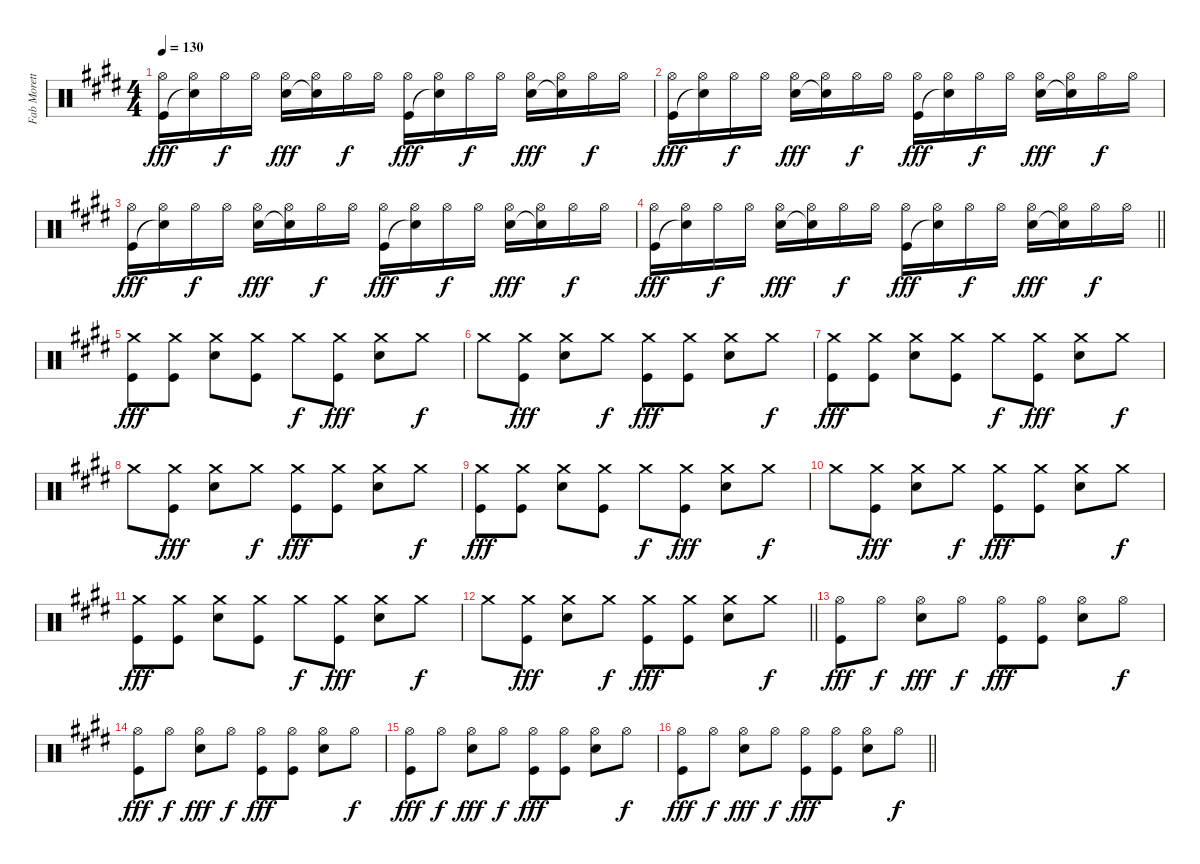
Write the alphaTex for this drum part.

\track ("Fab Moretti" "Fab Morett") {instrument percussion}
\staff {score}
\articulation defaults
\ts (4 4)
\tempo 130
\clef neutral
\ks e
("Hi-Hat (open)" "Kick (hit)").16{dy fff} ("Hi-Hat (open)" "Snare (hit)"{t}).16 "Hi-Hat (open)".16{dy f} "Hi-Hat (open)".16 ("Hi-Hat (open)" "Snare (hit) 2").16{dy fff} ("Hi-Hat (open)" "Snare (hit)"{t}).16 "Hi-Hat (open)".16{dy f} "Hi-Hat (open)".16 ("Hi-Hat (open)" "Kick (hit)").16{dy fff} ("Hi-Hat (open)" "Snare (hit)"{t}).16 "Hi-Hat (open)".16{dy f} "Hi-Hat (open)".16 ("Hi-Hat (open)" "Snare (hit) 2").16{dy fff} ("Hi-Hat (open)" "Snare (hit)"{t}).16 "Hi-Hat (open)".16{dy f} "Hi-Hat (open)".16 |
("Hi-Hat (open)" "Kick (hit)").16{dy fff} ("Hi-Hat (open)" "Snare (hit)"{t}).16 "Hi-Hat (open)".16{dy f} "Hi-Hat (open)".16 ("Hi-Hat (open)" "Snare (hit) 2").16{dy fff} ("Hi-Hat (open)" "Snare (hit)"{t}).16 "Hi-Hat (open)".16{dy f} "Hi-Hat (open)".16 ("Hi-Hat (open)" "Kick (hit)").16{dy fff} ("Hi-Hat (open)" "Snare (hit)"{t}).16 "Hi-Hat (open)".16{dy f} "Hi-Hat (open)".16 ("Hi-Hat (open)" "Snare (hit) 2").16{dy fff} ("Hi-Hat (open)" "Snare (hit)"{t}).16 "Hi-Hat (open)".16{dy f} "Hi-Hat (open)".16 |
("Hi-Hat (open)" "Kick (hit)").16{dy fff} ("Hi-Hat (open)" "Snare (hit)"{t}).16 "Hi-Hat (open)".16{dy f} "Hi-Hat (open)".16 ("Hi-Hat (open)" "Snare (hit) 2").16{dy fff} ("Hi-Hat (open)" "Snare (hit)"{t}).16 "Hi-Hat (open)".16{dy f} "Hi-Hat (open)".16 ("Hi-Hat (open)" "Kick (hit)").16{dy fff} ("Hi-Hat (open)" "Snare (hit)"{t}).16 "Hi-Hat (open)".16{dy f} "Hi-Hat (open)".16 ("Hi-Hat (open)" "Snare (hit) 2").16{dy fff} ("Hi-Hat (open)" "Snare (hit)"{t}).16 "Hi-Hat (open)".16{dy f} "Hi-Hat (open)".16 |
\barLineRight lightlight
("Hi-Hat (open)" "Kick (hit)").16{dy fff} ("Hi-Hat (open)" "Snare (hit)"{t}).16 "Hi-Hat (open)".16{dy f} "Hi-Hat (open)".16 ("Hi-Hat (open)" "Snare (hit) 2").16{dy fff} ("Hi-Hat (open)" "Snare (hit)"{t}).16 "Hi-Hat (open)".16{dy f} "Hi-Hat (open)".16 ("Hi-Hat (open)" "Kick (hit)").16{dy fff} ("Hi-Hat (open)" "Snare (hit)"{t}).16 "Hi-Hat (open)".16{dy f} "Hi-Hat (open)".16 ("Hi-Hat (open)" "Snare (hit) 2").16{dy fff} ("Hi-Hat (open)" "Snare (hit)"{t}).16 "Hi-Hat (open)".16{dy f} "Hi-Hat (open)".16 |
("Crash medium (hit)" "Kick (hit)").8{dy fff} ("Crash medium (hit)" "Kick (hit)").8 ("Crash medium (hit)" "Snare (hit) 2").8 ("Crash medium (hit)" "Kick (hit)").8 "Crash medium (hit)".8{dy f} ("Crash medium (hit)" "Kick (hit)").8{dy fff} ("Crash medium (hit)" "Snare (hit) 2").8 "Crash medium (hit)".8{dy f} |
"Crash medium (hit)".8 ("Crash medium (hit)" "Kick (hit)").8{dy fff} ("Crash medium (hit)" "Snare (hit) 2").8 "Crash medium (hit)".8{dy f} ("Crash medium (hit)" "Kick (hit)").8{dy fff} ("Crash medium (hit)" "Kick (hit)").8 ("Crash medium (hit)" "Snare (hit) 2").8 "Crash medium (hit)".8{dy f} |
("Crash medium (hit)" "Kick (hit)").8{dy fff} ("Crash medium (hit)" "Kick (hit)").8 ("Crash medium (hit)" "Snare (hit) 2").8 ("Crash medium (hit)" "Kick (hit)").8 "Crash medium (hit)".8{dy f} ("Crash medium (hit)" "Kick (hit)").8{dy fff} ("Crash medium (hit)" "Snare (hit) 2").8 "Crash medium (hit)".8{dy f} |
"Crash medium (hit)".8 ("Crash medium (hit)" "Kick (hit)").8{dy fff} ("Crash medium (hit)" "Snare (hit) 2").8 "Crash medium (hit)".8{dy f} ("Crash medium (hit)" "Kick (hit)").8{dy fff} ("Crash medium (hit)" "Kick (hit)").8 ("Crash medium (hit)" "Snare (hit) 2").8 "Crash medium (hit)".8{dy f} |
("Crash medium (hit)" "Kick (hit)").8{dy fff} ("Crash medium (hit)" "Kick (hit)").8 ("Crash medium (hit)" "Snare (hit) 2").8 ("Crash medium (hit)" "Kick (hit)").8 "Crash medium (hit)".8{dy f} ("Crash medium (hit)" "Kick (hit)").8{dy fff} ("Crash medium (hit)" "Snare (hit) 2").8 "Crash medium (hit)".8{dy f} |
"Crash medium (hit)".8 ("Crash medium (hit)" "Kick (hit)").8{dy fff} ("Crash medium (hit)" "Snare (hit) 2").8 "Crash medium (hit)".8{dy f} ("Crash medium (hit)" "Kick (hit)").8{dy fff} ("Crash medium (hit)" "Kick (hit)").8 ("Crash medium (hit)" "Snare (hit) 2").8 "Crash medium (hit)".8{dy f} |
("Crash medium (hit)" "Kick (hit)").8{dy fff} ("Crash medium (hit)" "Kick (hit)").8 ("Crash medium (hit)" "Snare (hit) 2").8 ("Crash medium (hit)" "Kick (hit)").8 "Crash medium (hit)".8{dy f} ("Crash medium (hit)" "Kick (hit)").8{dy fff} ("Crash medium (hit)" "Snare (hit) 2").8 "Crash medium (hit)".8{dy f} |
\barLineRight lightlight "Crash medium (hit)".8
("Crash medium (hit)" "Kick (hit)").8{dy fff} ("Crash medium (hit)" "Snare (hit) 2").8 "Crash medium (hit)".8{dy f} ("Crash medium (hit)" "Kick (hit)").8{dy fff} ("Crash medium (hit)" "Kick (hit)").8 ("Crash medium (hit)" "Snare (hit) 2").8 "Crash medium (hit)".8{dy f} |
("Hi-Hat (open)" "Kick (hit)").8{dy fff} "Hi-Hat (open)".8{dy f} ("Hi-Hat (open)" "Snare (hit) 2").8{dy fff} "Hi-Hat (open)".8{dy f} ("Hi-Hat (open)" "Kick (hit)").8{dy fff} ("Hi-Hat (open)" "Kick (hit)").8 ("Hi-Hat (open)" "Snare (hit) 2").8 "Hi-Hat (open)".8{dy f} |
("Hi-Hat (open)" "Kick (hit)").8{dy fff} "Hi-Hat (open)".8{dy f} ("Hi-Hat (open)" "Snare (hit) 2").8{dy fff} "Hi-Hat (open)".8{dy f} ("Hi-Hat (open)" "Kick (hit)").8{dy fff} ("Hi-Hat (open)" "Kick (hit)").8 ("Hi-Hat (open)" "Snare (hit) 2").8 "Hi-Hat (open)".8{dy f} |
("Hi-Hat (open)" "Kick (hit)").8{dy fff} "Hi-Hat (open)".8{dy f} ("Hi-Hat (open)" "Snare (hit) 2").8{dy fff} "Hi-Hat (open)".8{dy f} ("Hi-Hat (open)" "Kick (hit)").8{dy fff} ("Hi-Hat (open)" "Kick (hit)").8 ("Hi-Hat (open)" "Snare (hit) 2").8 "Hi-Hat (open)".8{dy f} |
\barLineRight lightlight
("Hi-Hat (open)" "Kick (hit)").8{dy fff} "Hi-Hat (open)".8{dy f} ("Hi-Hat (open)" "Snare (hit) 2").8{dy fff} "Hi-Hat (open)".8{dy f} ("Hi-Hat (open)" "Kick (hit)").8{dy fff} ("Hi-Hat (open)" "Kick (hit)").8 ("Hi-Hat (open)" "Snare (hit) 2").8 "Hi-Hat (open)".8{dy f}
